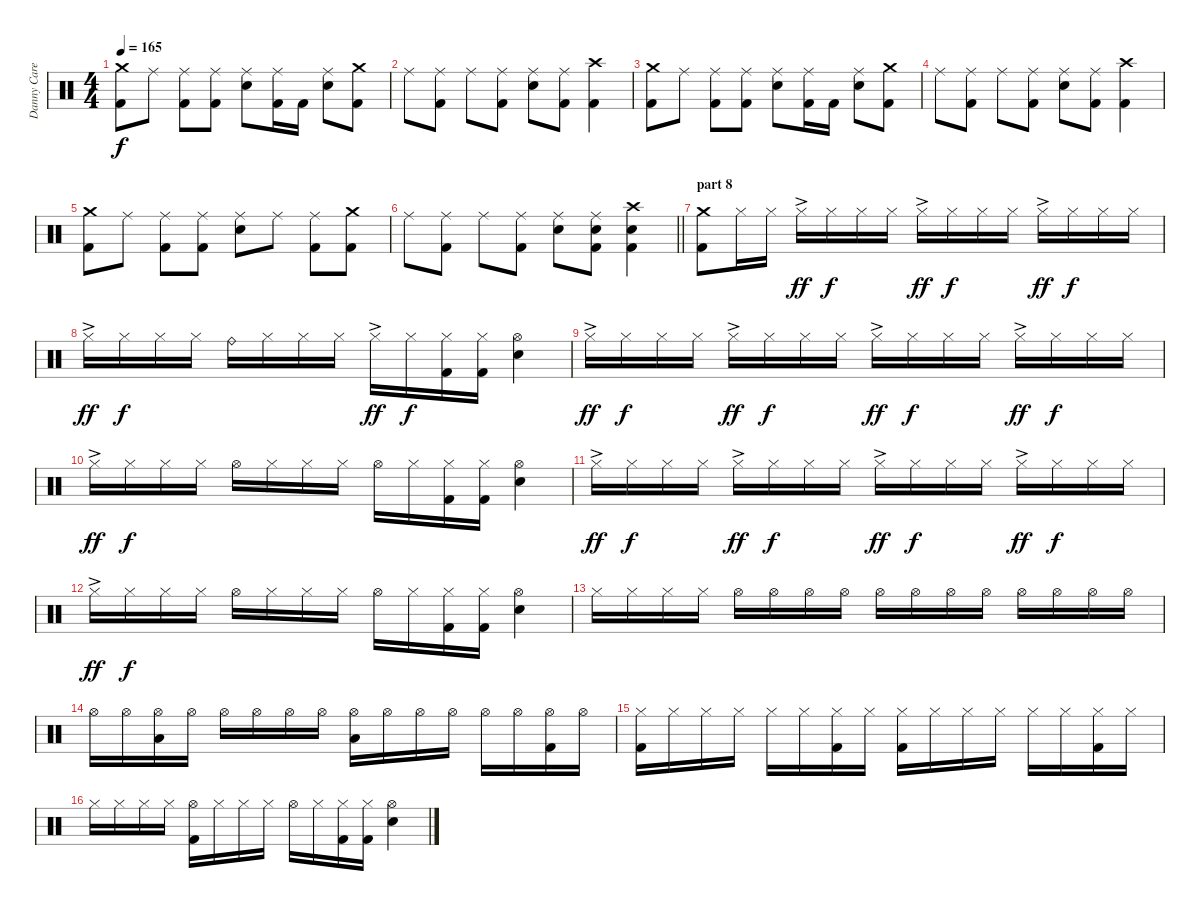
\track ("Danny Carey / drums" "Danny Care") {instrument percussion}
\staff {score}
\articulation defaults
\ts (4 4)
\tempo 165
\clef neutral
\ks c
("Crash medium (hit)" "Kick (hit) 2").8{dy f} "Ride (middle)".8 ("Ride (middle)" "Kick (hit) 2").8 ("Ride (middle)" "Kick (hit) 2").8 ("Ride (middle)" "Electric Snare (hit)").8 ("Ride (middle)" "Kick (hit) 2").16 "Kick (hit) 2".16 ("Ride (middle)" "Electric Snare (hit)").8 ("Crash medium (hit)" "Kick (hit) 2").8 |
"Ride (middle)".8 ("Ride (middle)" "Kick (hit) 2").8 "Ride (middle)".8 ("Ride (middle)" "Kick (hit) 2").8 ("Ride (middle)" "Electric Snare (hit)").8 ("Ride (middle)" "Kick (hit) 2").8 ("Crash high (hit)" "Kick (hit) 2").4 |
("Crash medium (hit)" "Kick (hit) 2").8 "Ride (middle)".8 ("Ride (middle)" "Kick (hit) 2").8 ("Ride (middle)" "Kick (hit) 2").8 ("Ride (middle)" "Electric Snare (hit)").8 ("Ride (middle)" "Kick (hit) 2").16 "Kick (hit) 2".16 ("Ride (middle)" "Electric Snare (hit)").8 ("Crash medium (hit)" "Kick (hit) 2").8 |
"Ride (middle)".8 ("Ride (middle)" "Kick (hit) 2").8 "Ride (middle)".8 ("Ride (middle)" "Kick (hit) 2").8 ("Ride (middle)" "Electric Snare (hit)").8 ("Ride (middle)" "Kick (hit) 2").8 ("Crash high (hit)" "Kick (hit) 2").4 |
("Crash medium (hit)" "Kick (hit) 2").8 "Ride (middle)".8 ("Ride (middle)" "Kick (hit) 2").8 ("Ride (middle)" "Kick (hit) 2").8 ("Ride (middle)" "Electric Snare (hit)").8 "Ride (middle)".8 ("Ride (middle)" "Kick (hit) 2").8 ("Crash medium (hit)" "Kick (hit) 2").8 |
\barLineRight lightlight "Ride (middle)".8
("Ride (middle)" "Kick (hit) 2").8 "Ride (middle)".8 ("Ride (middle)" "Kick (hit) 2").8 ("Ride (middle)" "Electric Snare (hit)").8 ("Ride (middle)" "Electric Snare (hit)" "Kick (hit) 2").8 ("Crash high (hit)" "Electric Snare (hit)" "Kick (hit) 2").4 |
\section ("" "part 8")
("Crash medium (hit)" "Kick (hit) 2").8 "Hi-Hat (closed)".16 "Hi-Hat (closed)".16 "Hi-Hat (closed)"{ac}.16{dy ff} "Hi-Hat (closed)".16{dy f} "Hi-Hat (closed)".16 "Hi-Hat (closed)".16 "Hi-Hat (closed)"{ac}.16{dy ff} "Hi-Hat (closed)".16{dy f} "Hi-Hat (closed)".16 "Hi-Hat (closed)".16 "Hi-Hat (closed)"{ac}.16{dy ff} "Hi-Hat (closed)".16{dy f} "Hi-Hat (closed)".16 "Hi-Hat (closed)".16 |
"Hi-Hat (closed)"{ac}.16{dy ff} "Hi-Hat (closed)".16{dy f} "Hi-Hat (closed)".16 "Hi-Hat (closed)".16 "Ride (bell)".16 "Hi-Hat (closed)".16 "Hi-Hat (closed)".16 "Hi-Hat (closed)".16 "Hi-Hat (closed)"{ac}.16{dy ff} "Hi-Hat (closed)".16{dy f} ("Hi-Hat (closed)" "Kick (hit) 2").16 ("Hi-Hat (closed)" "Kick (hit) 2").16 ("Hi-Hat (open)" "Electric Snare (hit)").4 |
"Hi-Hat (closed)"{ac}.16{dy ff} "Hi-Hat (closed)".16{dy f} "Hi-Hat (closed)".16 "Hi-Hat (closed)".16 "Hi-Hat (closed)"{ac}.16{dy ff} "Hi-Hat (closed)".16{dy f} "Hi-Hat (closed)".16 "Hi-Hat (closed)".16 "Hi-Hat (closed)"{ac}.16{dy ff} "Hi-Hat (closed)".16{dy f} "Hi-Hat (closed)".16 "Hi-Hat (closed)".16 "Hi-Hat (closed)"{ac}.16{dy ff} "Hi-Hat (closed)".16{dy f} "Hi-Hat (closed)".16 "Hi-Hat (closed)".16 |
"Hi-Hat (closed)"{ac}.16{dy ff} "Hi-Hat (closed)".16{dy f} "Hi-Hat (closed)".16 "Hi-Hat (closed)".16 "Hi-Hat (open)".16 "Hi-Hat (closed)".16 "Hi-Hat (closed)".16 "Hi-Hat (closed)".16 "Hi-Hat (open)".16 "Hi-Hat (closed)".16 ("Hi-Hat (closed)" "Kick (hit) 2").16 ("Hi-Hat (closed)" "Kick (hit) 2").16 ("Hi-Hat (open)" "Electric Snare (hit)").4 |
"Hi-Hat (closed)"{ac}.16{dy ff} "Hi-Hat (closed)".16{dy f} "Hi-Hat (closed)".16 "Hi-Hat (closed)".16 "Hi-Hat (closed)"{ac}.16{dy ff} "Hi-Hat (closed)".16{dy f} "Hi-Hat (closed)".16 "Hi-Hat (closed)".16 "Hi-Hat (closed)"{ac}.16{dy ff} "Hi-Hat (closed)".16{dy f} "Hi-Hat (closed)".16 "Hi-Hat (closed)".16 "Hi-Hat (closed)"{ac}.16{dy ff} "Hi-Hat (closed)".16{dy f} "Hi-Hat (closed)".16 "Hi-Hat (closed)".16 |
"Hi-Hat (closed)"{ac}.16{dy ff} "Hi-Hat (closed)".16{dy f} "Hi-Hat (closed)".16 "Hi-Hat (closed)".16 "Hi-Hat (open)".16 "Hi-Hat (closed)".16 "Hi-Hat (closed)".16 "Hi-Hat (closed)".16 "Hi-Hat (open)".16 "Hi-Hat (closed)".16 ("Hi-Hat (closed)" "Kick (hit) 2").16 ("Hi-Hat (closed)" "Kick (hit) 2").16 ("Hi-Hat (open)" "Electric Snare (hit)").4 |
"Hi-Hat (closed)".16 "Hi-Hat (closed)".16 "Hi-Hat (closed)".16 "Hi-Hat (closed)".16 "Hi-Hat (open)".16 "Hi-Hat (open)".16 "Hi-Hat (open)".16 "Hi-Hat (open)".16 "Hi-Hat (open)".16 "Hi-Hat (open)".16 "Hi-Hat (open)".16 "Hi-Hat (open)".16 "Hi-Hat (open)".16 "Hi-Hat (open)".16 "Hi-Hat (open)".16 "Hi-Hat (open)".16 |
"Hi-Hat (open)".16 "Hi-Hat (open)".16 ("Hi-Hat (open)" "Low Tom (hit)").16 "Hi-Hat (open)".16 "Hi-Hat (open)".16 "Hi-Hat (open)".16 "Hi-Hat (open)".16 "Hi-Hat (open)".16 ("Hi-Hat (open)" "Low Floor Tom (hit)").16 "Hi-Hat (open)".16 "Hi-Hat (open)".16 "Hi-Hat (open)".16 "Hi-Hat (open)".16 "Hi-Hat (open)".16 ("Hi-Hat (open)" "Kick (hit) 2").16 "Hi-Hat (open)".16 |
("Hi-Hat (closed)" "Kick (hit) 2").16 "Hi-Hat (closed)".16 "Hi-Hat (closed)".16 "Hi-Hat (closed)".16 "Hi-Hat (closed)".16 "Hi-Hat (closed)".16 ("Hi-Hat (closed)" "Kick (hit) 2").16 "Hi-Hat (closed)".16 ("Hi-Hat (closed)" "Kick (hit) 2").16 "Hi-Hat (closed)".16 "Hi-Hat (closed)".16 "Hi-Hat (closed)".16 "Hi-Hat (closed)".16 "Hi-Hat (closed)".16 ("Hi-Hat (closed)" "Kick (hit) 2").16 "Hi-Hat (closed)".16 |
"Hi-Hat (closed)".16 "Hi-Hat (closed)".16 "Hi-Hat (closed)".16 "Hi-Hat (closed)".16 ("Hi-Hat (open)" "Kick (hit) 2").16 "Hi-Hat (closed)".16 "Hi-Hat (closed)".16 "Hi-Hat (closed)".16 "Hi-Hat (open)".16 "Hi-Hat (closed)".16 ("Hi-Hat (closed)" "Kick (hit) 2").16 ("Hi-Hat (closed)" "Kick (hit) 2").16 ("Hi-Hat (open)" "Electric Snare (hit)").4
